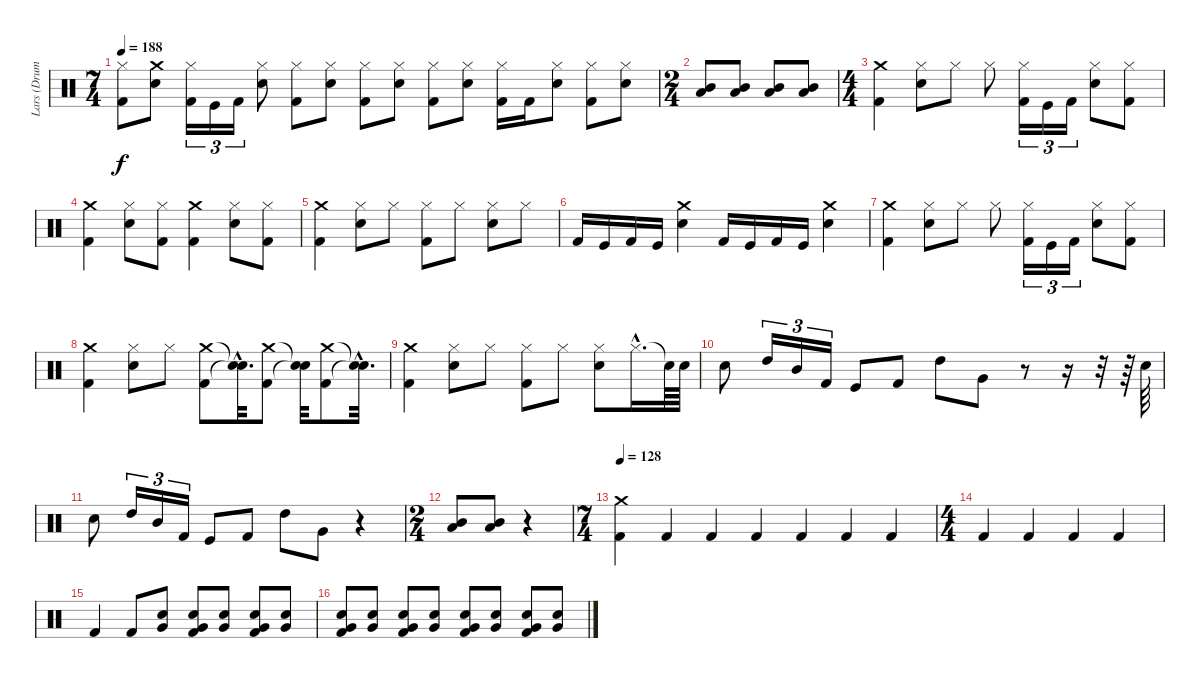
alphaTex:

\track ("Lars (Drums)" "Lars (Drum") {instrument percussion}
\staff {score}
\articulation defaults
\ts (7 4)
\tempo 188
\clef neutral
\ks c
("Kick (hit) 2" "Hi-Hat (closed)").8{dy f} ("Crash medium (hit)" "Snare (hit) 2").8 ("Kick (hit) 2" "Hi-Hat (closed)").16{tu (3 2)} "Kick (hit)".16{tu (3 2)} "Kick (hit) 2".16{tu (3 2)} ("Snare (hit) 2" "Hi-Hat (closed)").8 ("Hi-Hat (closed)" "Kick (hit) 2").8 ("Hi-Hat (closed)" "Snare (hit) 2").8 ("Hi-Hat (closed)" "Kick (hit) 2").8 ("Snare (hit) 2" "Hi-Hat (closed)").8 ("Hi-Hat (closed)" "Kick (hit) 2").8 ("Snare (hit) 2" "Hi-Hat (closed)").8 ("Hi-Hat (closed)" "Kick (hit) 2").16 "Kick (hit) 2".16 ("Snare (hit) 2" "Hi-Hat (closed)").8 ("Hi-Hat (closed)" "Kick (hit) 2").8 ("Snare (hit) 2" "Hi-Hat (closed)").8 |
\ts (2 4)
("Mid Tom (hit)" "Low Tom (hit)").8 ("Mid Tom (hit)" "Low Tom (hit)").8 ("Mid Tom (hit)" "Low Tom (hit)").8 ("Mid Tom (hit)" "Low Tom (hit)").8 |
\ts (4 4)
("Kick (hit) 2" "Crash medium (hit)").4 ("Snare (hit) 2" "Hi-Hat (closed)").8 "Hi-Hat (closed)".8 "Hi-Hat (closed)".8 ("Kick (hit) 2" "Hi-Hat (closed)").16{tu (3 2)} "Kick (hit)".16{tu (3 2)} "Kick (hit) 2".16{tu (3 2)} ("Snare (hit) 2" "Hi-Hat (closed)").8 ("Kick (hit) 2" "Hi-Hat (closed)").8 |
("Kick (hit) 2" "Crash medium (hit)").4 ("Hi-Hat (closed)" "Snare (hit) 2").8 ("Kick (hit) 2" "Hi-Hat (closed)").8 ("Crash medium (hit)" "Kick (hit) 2").4 ("Hi-Hat (closed)" "Snare (hit) 2").8 ("Kick (hit) 2" "Hi-Hat (closed)").8 |
("Kick (hit) 2" "Crash medium (hit)").4 ("Hi-Hat (closed)" "Snare (hit) 2").8 "Hi-Hat (closed)".8 ("Hi-Hat (closed)" "Kick (hit) 2").8 "Hi-Hat (closed)".8 ("Snare (hit) 2" "Hi-Hat (closed)").8 "Hi-Hat (closed)".8 |
"Kick (hit) 2".16 "Kick (hit)".16 "Kick (hit) 2".16 "Kick (hit)".16 ("Crash medium (hit)" "Snare (hit) 2").4 "Kick (hit) 2".16 "Kick (hit)".16 "Kick (hit) 2".16 "Kick (hit)".16 ("Snare (hit) 2" "Crash medium (hit)").4 |
("Kick (hit) 2" "Crash medium (hit)").4 ("Snare (hit) 2" "Hi-Hat (closed)").8 "Hi-Hat (closed)".8 "Hi-Hat (closed)".8 ("Kick (hit) 2" "Hi-Hat (closed)").16{tu (3 2)} "Kick (hit)".16{tu (3 2)} "Kick (hit) 2".16{tu (3 2)} ("Snare (hit) 2" "Hi-Hat (closed)").8 ("Kick (hit) 2" "Hi-Hat (closed)").8 |
("Kick (hit) 2" "Crash medium (hit)").4 ("Hi-Hat (closed)" "Snare (hit) 2").8 "Hi-Hat (closed)".8 ("Kick (hit) 2" "Crash medium (hit)").8 ("Snare (hit)"{hac t} "Snare (hit)"{hac t}).32{d} ("Kick (hit) 2" "Crash medium (hit)").8 ("Snare (hit)"{t} "Snare (hit)"{t}).32 ("Kick (hit) 2" "Crash medium (hit)").8 ("Snare (hit)"{hac t} "Snare (hit)"{hac t}).32{d} |
("Kick (hit) 2" "Crash medium (hit)").4 ("Hi-Hat (closed)" "Snare (hit) 2").8 "Hi-Hat (closed)".8 ("Hi-Hat (closed)" "Kick (hit) 2").8 "Hi-Hat (closed)".8 ("Snare (hit) 2" "Hi-Hat (closed)").8 "Hi-Hat (closed)"{hac}.16{d} "Snare (hit)"{t}.64 "Snare (hit) 2".64 |
"Snare (hit) 2".8 "High Tom (hit)".16{tu (3 2)} "Mid Tom (hit)".16{tu (3 2)} "Kick (hit) 2".16{tu (3 2)} "Kick (hit)".8 "Kick (hit) 2".8 "High Tom (hit)".8 "Very Low Tom (hit)".8 r.8 r.16 r.32 r.64 "Snare (hit) 2".64 |
"Snare (hit) 2".8 "High Tom (hit)".16{tu (3 2)} "Mid Tom (hit)".16{tu (3 2)} "Kick (hit) 2".16{tu (3 2)} "Kick (hit)".8 "Kick (hit) 2".8 "High Tom (hit)".8 "Very Low Tom (hit)".8 r.4 |
\ts (2 4)
("Mid Tom (hit)" "Low Tom (hit)").8 ("Mid Tom (hit)" "Low Tom (hit)").8 r.4 |
\ts (7 4)
\tempo 128
("Kick (hit) 2" "Crash medium (hit)").4 "Kick (hit) 2".4 "Kick (hit) 2".4 "Kick (hit) 2".4 "Kick (hit) 2".4 "Kick (hit) 2".4 "Kick (hit) 2".4 |
\ts (4 4)
"Kick (hit) 2".4 "Kick (hit) 2".4 "Kick (hit) 2".4 "Kick (hit) 2".4 |
"Kick (hit) 2".4 "Kick (hit) 2".8 ("Very Low Tom (hit)" "Snare (hit) 2").8 ("Snare (hit) 2" "Very Low Tom (hit)" "Kick (hit) 2").8 ("Snare (hit) 2" "Very Low Tom (hit)").8 ("Snare (hit) 2" "Very Low Tom (hit)" "Kick (hit) 2").8 ("Snare (hit) 2" "Very Low Tom (hit)").8 |
("Snare (hit) 2" "Very Low Tom (hit)" "Kick (hit) 2").8 ("Snare (hit) 2" "Very Low Tom (hit)").8 ("Snare (hit) 2" "Very Low Tom (hit)" "Kick (hit) 2").8 ("Snare (hit) 2" "Very Low Tom (hit)").8 ("Snare (hit) 2" "Very Low Tom (hit)" "Kick (hit) 2").8 ("Snare (hit) 2" "Very Low Tom (hit)").8 ("Snare (hit) 2" "Very Low Tom (hit)" "Kick (hit) 2").8 ("Snare (hit) 2" "Very Low Tom (hit)").8
